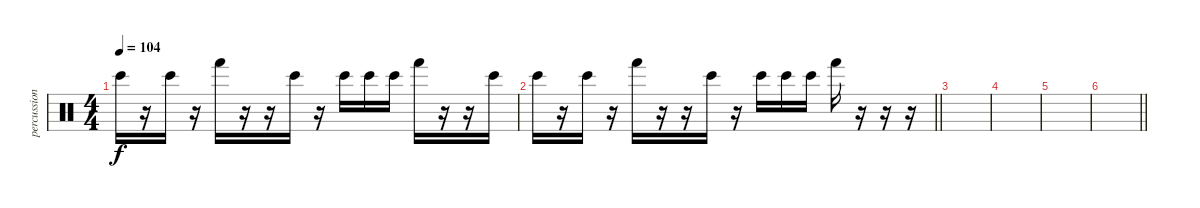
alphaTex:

\track ("percussion" "percussion") {instrument percussion}
\staff {score}
\articulation defaults
\ts (4 4)
\tempo 104
\clef neutral
\ks c "Bongo High (hit)".16{dy f}
r.16 "Bongo High (hit)".16 r.16 "Hand (hit)".16 r.16 r.16 "Bongo High (hit)".16 r.16 "Bongo High (hit)".16 "Bongo High (hit)".16 "Bongo High (hit)".16 "Hand (hit)".16 r.16 r.16 "Bongo High (hit)".16 |
\barLineRight lightlight "Bongo High (hit)".16
r.16 "Bongo High (hit)".16 r.16 "Hand (hit)".16 r.16 r.16 "Bongo High (hit)".16 r.16 "Bongo High (hit)".16 "Bongo High (hit)".16 "Bongo High (hit)".16 "Hand (hit)".16 r.16 r.16 r.16 |
|
|
|
\barLineRight lightlight
